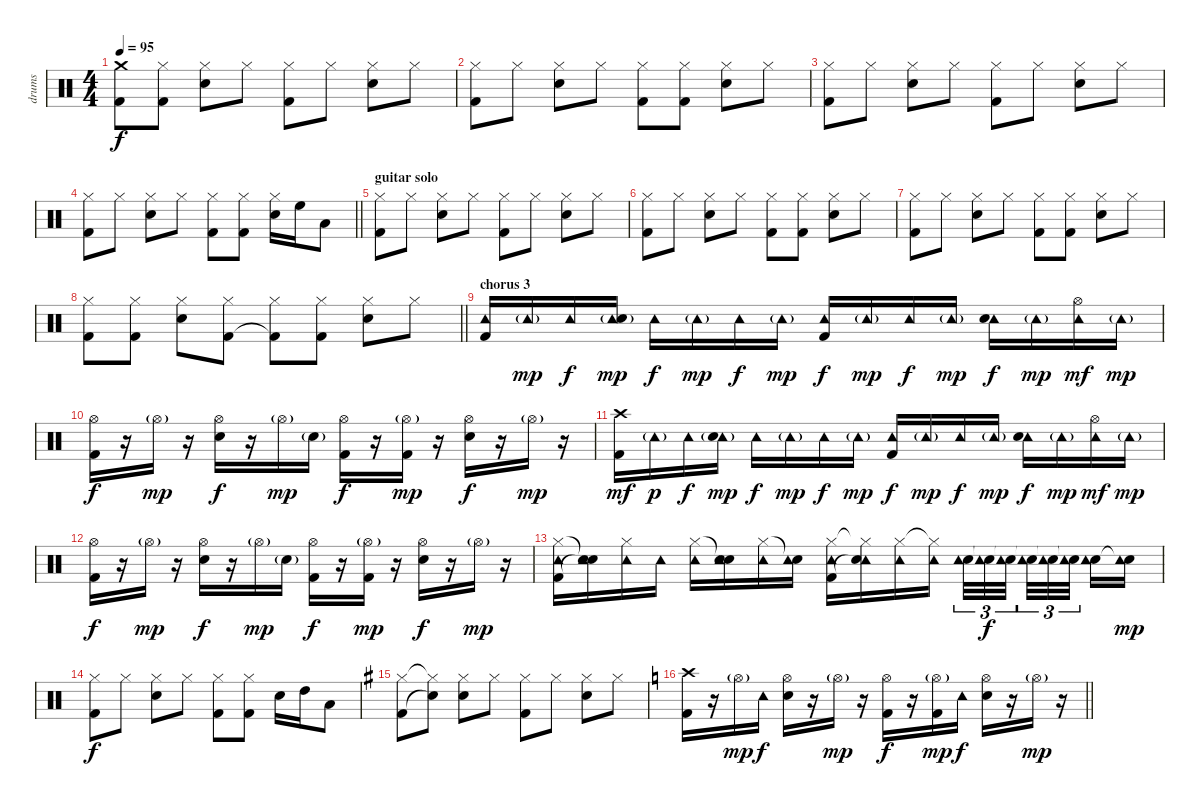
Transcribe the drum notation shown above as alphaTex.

\track ("drums" "drums") {instrument percussion}
\staff {score}
\articulation defaults
\ts (4 4)
\tempo 95
\clef neutral
\ks c
("Crash medium (hit)" "Kick (hit) 2").8{dy f} ("Hi-Hat (closed)" "Kick (hit) 2").8 ("Hi-Hat (closed)" "Snare (hit) 2").8 "Hi-Hat (closed)".8 ("Hi-Hat (closed)" "Kick (hit) 2").8 "Hi-Hat (closed)".8 ("Hi-Hat (closed)" "Snare (hit) 2").8 "Hi-Hat (closed)".8 |
("Hi-Hat (closed)" "Kick (hit) 2").8 "Hi-Hat (closed)".8 ("Hi-Hat (closed)" "Snare (hit) 2").8 "Hi-Hat (closed)".8 ("Hi-Hat (closed)" "Kick (hit) 2").8 ("Hi-Hat (closed)" "Kick (hit) 2").8 ("Hi-Hat (closed)" "Snare (hit) 2").8 "Hi-Hat (closed)".8 |
("Hi-Hat (closed)" "Kick (hit) 2").8 "Hi-Hat (closed)".8 ("Hi-Hat (closed)" "Snare (hit) 2").8 "Hi-Hat (closed)".8 ("Hi-Hat (closed)" "Kick (hit) 2").8 "Hi-Hat (closed)".8 ("Hi-Hat (closed)" "Snare (hit) 2").8 "Hi-Hat (closed)".8 |
\barLineRight lightlight
("Hi-Hat (closed)" "Kick (hit) 2").8 "Hi-Hat (closed)".8 ("Hi-Hat (closed)" "Snare (hit) 2").8 "Hi-Hat (closed)".8 ("Hi-Hat (closed)" "Kick (hit) 2").8 ("Hi-Hat (closed)" "Kick (hit) 2").8 ("Hi-Hat (closed)" "Snare (hit) 2").16 "High Floor Tom (hit)".16 "Low Tom (hit)".8 |
\section ("" "guitar solo")
("Hi-Hat (closed)" "Kick (hit) 2").8 "Hi-Hat (closed)".8 ("Hi-Hat (closed)" "Snare (hit) 2").8 "Hi-Hat (closed)".8 ("Hi-Hat (closed)" "Kick (hit) 2").8 "Hi-Hat (closed)".8 ("Hi-Hat (closed)" "Snare (hit) 2").8 "Hi-Hat (closed)".8 |
("Hi-Hat (closed)" "Kick (hit) 2").8 "Hi-Hat (closed)".8 ("Hi-Hat (closed)" "Snare (hit) 2").8 "Hi-Hat (closed)".8 ("Hi-Hat (closed)" "Kick (hit) 2").8 ("Hi-Hat (closed)" "Kick (hit) 2").8 ("Hi-Hat (closed)" "Snare (hit) 2").8 "Hi-Hat (closed)".8 |
("Hi-Hat (closed)" "Kick (hit) 2").8 "Hi-Hat (closed)".8 ("Hi-Hat (closed)" "Snare (hit) 2").8 "Hi-Hat (closed)".8 ("Hi-Hat (closed)" "Kick (hit) 2").8 ("Hi-Hat (closed)" "Kick (hit) 2").8 ("Hi-Hat (closed)" "Snare (hit) 2").8 "Hi-Hat (closed)".8 |
\barLineRight lightlight
("Hi-Hat (closed)" "Kick (hit) 2").8 ("Hi-Hat (closed)" "Kick (hit) 2").8 ("Hi-Hat (closed)" "Snare (hit) 2").8 ("Hi-Hat (closed)" "Kick (hit) 2").8 ("Hi-Hat (closed)" "Kick (hit) 2"{t}).8 ("Hi-Hat (closed)" "Kick (hit) 2").8 ("Hi-Hat (closed)" "Snare (hit) 2").8 "Hi-Hat (closed)".8 |
\section ("" "chorus 3")
("Tambourine (hit)" "Kick (hit) 2").16 "Tambourine (hit)"{g}.16{dy mp} "Tambourine (hit)".16{dy f} ("Tambourine (hit)"{g} "Electric Snare (hit)").16{dy mp} "Tambourine (hit)".16{dy f} "Tambourine (hit)"{g}.16{dy mp} "Tambourine (hit)".16{dy f} "Tambourine (hit)"{g}.16{dy mp} ("Tambourine (hit)" "Kick (hit) 2").16{dy f} "Tambourine (hit)"{g}.16{dy mp} "Tambourine (hit)".16{dy f} "Tambourine (hit)"{g}.16{dy mp} ("Tambourine (hit)" "Electric Snare (hit)").16{dy f} "Tambourine (hit)"{g}.16{dy mp} ("Hi-Hat (open)" "Tambourine (hit)").16{dy mf} "Tambourine (hit)"{g}.16{dy mp} |
("Hi-Hat (open)" "Kick (hit) 2").16{dy f} r.16 "Hi-Hat (open)"{g}.16{dy mp} r.16 ("Hi-Hat (open)" "Electric Snare (hit)").16{dy f} r.16 "Hi-Hat (open)"{g}.16{dy mp} "Electric Snare (hit)"{g}.16 ("Hi-Hat (open)" "Kick (hit) 2").16{dy f} r.16 ("Hi-Hat (open)"{g} "Kick (hit) 2").16{dy mp} r.16 ("Hi-Hat (open)" "Electric Snare (hit)").16{dy f} r.16 "Hi-Hat (open)"{g}.16{dy mp} r.16 |
("Crash high (hit)" "Kick (hit) 2").16{dy mf} "Tambourine (hit)"{g}.16{dy p} "Tambourine (hit)".16{dy f} ("Tambourine (hit)"{g} "Electric Snare (hit)").16{dy mp} "Tambourine (hit)".16{dy f} "Tambourine (hit)"{g}.16{dy mp} "Tambourine (hit)".16{dy f} "Tambourine (hit)"{g}.16{dy mp} ("Tambourine (hit)" "Kick (hit) 2").16{dy f} "Tambourine (hit)"{g}.16{dy mp} "Tambourine (hit)".16{dy f} "Tambourine (hit)"{g}.16{dy mp} ("Tambourine (hit)" "Electric Snare (hit)").16{dy f} "Tambourine (hit)"{g}.16{dy mp} ("Hi-Hat (open)" "Tambourine (hit)").16{dy mf} "Tambourine (hit)"{g}.16{dy mp} |
("Hi-Hat (open)" "Kick (hit) 2").16{dy f} r.16 "Hi-Hat (open)"{g}.16{dy mp} r.16 ("Hi-Hat (open)" "Electric Snare (hit)").16{dy f} r.16 "Hi-Hat (open)"{g}.16{dy mp} "Electric Snare (hit)"{g}.16 ("Hi-Hat (open)" "Kick (hit) 2").16{dy f} r.16 ("Hi-Hat (open)"{g} "Kick (hit) 2").16{dy mp} r.16 ("Hi-Hat (open)" "Electric Snare (hit)").16{dy f} r.16 "Hi-Hat (open)"{g}.16{dy mp} r.16 |
("Hi-Hat (closed)" "Tambourine (hit)" "Kick (hit) 2").16 ("Snare (hit)"{t} "Tambourine (hit)" "Snare (hit)"{t}).16 ("Hi-Hat (closed)" "Tambourine (hit)").16 "Tambourine (hit)".16 ("Hi-Hat (closed)" "Tambourine (hit)").16 ("Snare (hit)"{t} "Snare (hit) 2" "Tambourine (hit)").16 ("Hi-Hat (closed)" "Tambourine (hit)").16 ("Snare (hit)"{t} "Tambourine (hit)").16 ("Hi-Hat (closed)" "Tambourine (hit)" "Kick (hit) 2").16 ("Hi-Hat (closed)"{t} "Tambourine (hit)" "Snare (hit)"{t}).16 ("Hi-Hat (closed)" "Tambourine (hit)").16 ("Hi-Hat (closed)"{t} "Tambourine (hit)").16 ("Snare (hit) 2" "Tambourine (hit)").32{tu (3 2)} ("Snare (hit) 2"{t} "Tambourine (hit)"{t}).32{tu (3 2) dy f} ("Snare (hit) 2" "Tambourine (hit)"{t}).32{tu (3 2) beam splitsecondary} ("Snare (hit) 2"{t} "Tambourine (hit)").32{tu (3 2)} ("Snare (hit) 2" "Tambourine (hit)"{t}).32{tu (3 2)} ("Snare (hit) 2"{t} "Tambourine (hit)"{t}).32{tu (3 2) beam splitsecondary} ("Snare (hit) 2" "Tambourine (hit)").16 ("Snare (hit) 2"{t} "Tambourine (hit)").16{dy mp} |
("Hi-Hat (closed)" "Kick (hit) 2").8{dy f} "Hi-Hat (closed)".8 ("Hi-Hat (closed)" "Snare (hit) 2").8 "Hi-Hat (closed)".8 ("Hi-Hat (closed)" "Kick (hit) 2").8 ("Hi-Hat (closed)" "Kick (hit) 2").8 "Snare (hit) 2".16 "High Tom (hit)".16 "Low Tom (hit)".8 |
\ks g
("Hi-Hat (closed)" "Kick (hit) 2").8 ("Hi-Hat (closed)"{t} "Snare (hit)"{t}).8 ("Hi-Hat (closed)" "Snare (hit) 2").8 "Hi-Hat (closed)".8 ("Hi-Hat (closed)" "Kick (hit) 2").8 "Hi-Hat (closed)".8 ("Hi-Hat (closed)" "Snare (hit) 2").8 "Hi-Hat (closed)".8 |
\barLineRight lightlight
\ks c
("Crash high (hit)" "Kick (hit) 2").16 r.16 "Hi-Hat (open)"{g}.16{dy mp} "Tambourine (hit)".16{dy f} ("Hi-Hat (open)" "Electric Snare (hit)").16 r.16 "Hi-Hat (open)"{g}.16{dy mp} r.16 ("Hi-Hat (open)" "Kick (hit) 2").16{dy f} r.16 ("Hi-Hat (open)"{g} "Kick (hit) 2").16{dy mp} "Tambourine (hit)".16{dy f} ("Hi-Hat (open)" "Electric Snare (hit)").16 r.16 "Hi-Hat (open)"{g}.16{dy mp} r.16
